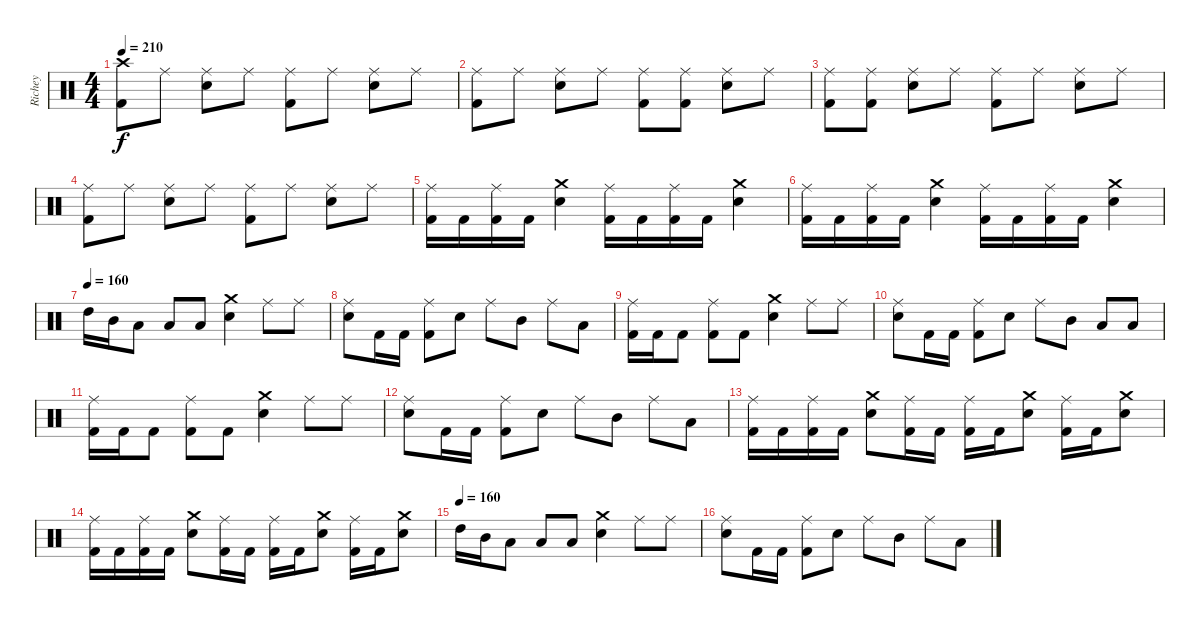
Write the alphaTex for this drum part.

\track ("Richey" "Richey") {instrument percussion}
\staff {score}
\articulation defaults
\ts (4 4)
\tempo 210
\clef neutral
\ks c
("Crash high (hit)" "Kick (hit) 2").8{dy f} "Ride (middle)".8 ("Ride (middle)" "Snare (hit) 2").8 "Ride (middle)".8 ("Ride (middle)" "Kick (hit) 2").8 "Ride (middle)".8 ("Ride (middle)" "Snare (hit) 2").8 "Ride (middle)".8 |
("Ride (middle)" "Kick (hit) 2").8 "Ride (middle)".8 ("Ride (middle)" "Snare (hit) 2").8 "Ride (middle)".8 ("Ride (middle)" "Kick (hit) 2").8 ("Ride (middle)" "Kick (hit) 2").8 ("Ride (middle)" "Snare (hit) 2").8 "Ride (middle)".8 |
("Ride (middle)" "Kick (hit) 2").8 ("Ride (middle)" "Kick (hit) 2").8 ("Ride (middle)" "Snare (hit) 2").8 "Ride (middle)".8 ("Ride (middle)" "Kick (hit) 2").8 "Ride (middle)".8 ("Ride (middle)" "Snare (hit) 2").8 "Ride (middle)".8 |
("Ride (middle)" "Kick (hit) 2").8 "Ride (middle)".8 ("Ride (middle)" "Snare (hit) 2").8 "Ride (middle)".8 ("Ride (middle)" "Kick (hit) 2").8 "Ride (middle)".8 ("Ride (middle)" "Snare (hit) 2").8 "Ride (middle)".8 |
("Ride (middle)" "Kick (hit) 2").16 "Kick (hit) 2".16 ("Ride (middle)" "Kick (hit) 2").16 "Kick (hit) 2".16 ("Crash medium (hit)" "Snare (hit) 2").4 ("Ride (middle)" "Kick (hit) 2").16 "Kick (hit) 2".16 ("Ride (middle)" "Kick (hit) 2").16 "Kick (hit) 2".16 ("Crash medium (hit)" "Snare (hit) 2").4 |
("Ride (middle)" "Kick (hit) 2").16 "Kick (hit) 2".16 ("Ride (middle)" "Kick (hit) 2").16 "Kick (hit) 2".16 ("Crash medium (hit)" "Snare (hit) 2").4 ("Ride (middle)" "Kick (hit) 2").16 "Kick (hit) 2".16 ("Ride (middle)" "Kick (hit) 2").16 "Kick (hit) 2".16 ("Crash medium (hit)" "Snare (hit) 2").4 |
\tempo (160)
"High Tom (hit)".16 "Mid Tom (hit)".16 "Low Tom (hit)".8 "Low Tom (hit)".8 "Low Tom (hit)".8 ("Crash medium (hit)" "Snare (hit) 2").4 "Ride (middle)".8 "Ride (middle)".8 |
("Ride (middle)" "Snare (hit) 2").8 "Kick (hit) 2".16 "Kick (hit) 2".16 ("Ride (middle)" "Kick (hit) 2").8 "Snare (hit) 2".8 "Ride (middle)".8 "Mid Tom (hit)".8 "Ride (middle)".8 "Low Tom (hit)".8 |
("Ride (middle)" "Kick (hit) 2").16 "Kick (hit) 2".16 "Kick (hit) 2".8 ("Ride (middle)" "Kick (hit) 2").8 "Kick (hit) 2".8 ("Crash medium (hit)" "Snare (hit) 2").4 "Ride (middle)".8 "Ride (middle)".8 |
("Ride (middle)" "Snare (hit) 2").8 "Kick (hit) 2".16 "Kick (hit) 2".16 ("Ride (middle)" "Kick (hit) 2").8 "Snare (hit) 2".8 "Ride (middle)".8 "Mid Tom (hit)".8 "Low Tom (hit)".8 "Low Tom (hit)".8 |
("Ride (middle)" "Kick (hit) 2").16 "Kick (hit) 2".16 "Kick (hit) 2".8 ("Ride (middle)" "Kick (hit) 2").8 "Kick (hit) 2".8 ("Crash medium (hit)" "Snare (hit) 2").4 "Ride (middle)".8 "Ride (middle)".8 |
("Ride (middle)" "Snare (hit) 2").8 "Kick (hit) 2".16 "Kick (hit) 2".16 ("Ride (middle)" "Kick (hit) 2").8 "Snare (hit) 2".8 "Ride (middle)".8 "Mid Tom (hit)".8 "Ride (middle)".8 "Low Tom (hit)".8 |
("Ride (middle)" "Kick (hit) 2").16 "Kick (hit) 2".16 ("Ride (middle)" "Kick (hit) 2").16 "Kick (hit) 2".16 ("Crash medium (hit)" "Snare (hit) 2").8 ("Ride (middle)" "Kick (hit) 2").16 "Kick (hit) 2".16 ("Ride (middle)" "Kick (hit) 2").16 "Kick (hit) 2".16 ("Crash medium (hit)" "Snare (hit) 2").8 ("Ride (middle)" "Kick (hit) 2").16 "Kick (hit) 2".16 ("Crash medium (hit)" "Snare (hit) 2").8 |
("Ride (middle)" "Kick (hit) 2").16 "Kick (hit) 2".16 ("Ride (middle)" "Kick (hit) 2").16 "Kick (hit) 2".16 ("Crash medium (hit)" "Snare (hit) 2").8 ("Ride (middle)" "Kick (hit) 2").16 "Kick (hit) 2".16 ("Ride (middle)" "Kick (hit) 2").16 "Kick (hit) 2".16 ("Crash medium (hit)" "Snare (hit) 2").8 ("Ride (middle)" "Kick (hit) 2").16 "Kick (hit) 2".16 ("Crash medium (hit)" "Snare (hit) 2").8 |
\tempo (160)
"High Tom (hit)".16 "Mid Tom (hit)".16 "Low Tom (hit)".8 "Low Tom (hit)".8 "Low Tom (hit)".8 ("Crash medium (hit)" "Snare (hit) 2").4 "Ride (middle)".8 "Ride (middle)".8 |
("Ride (middle)" "Snare (hit) 2").8 "Kick (hit) 2".16 "Kick (hit) 2".16 ("Ride (middle)" "Kick (hit) 2").8 "Snare (hit) 2".8 "Ride (middle)".8 "Mid Tom (hit)".8 "Ride (middle)".8 "Low Tom (hit)".8
